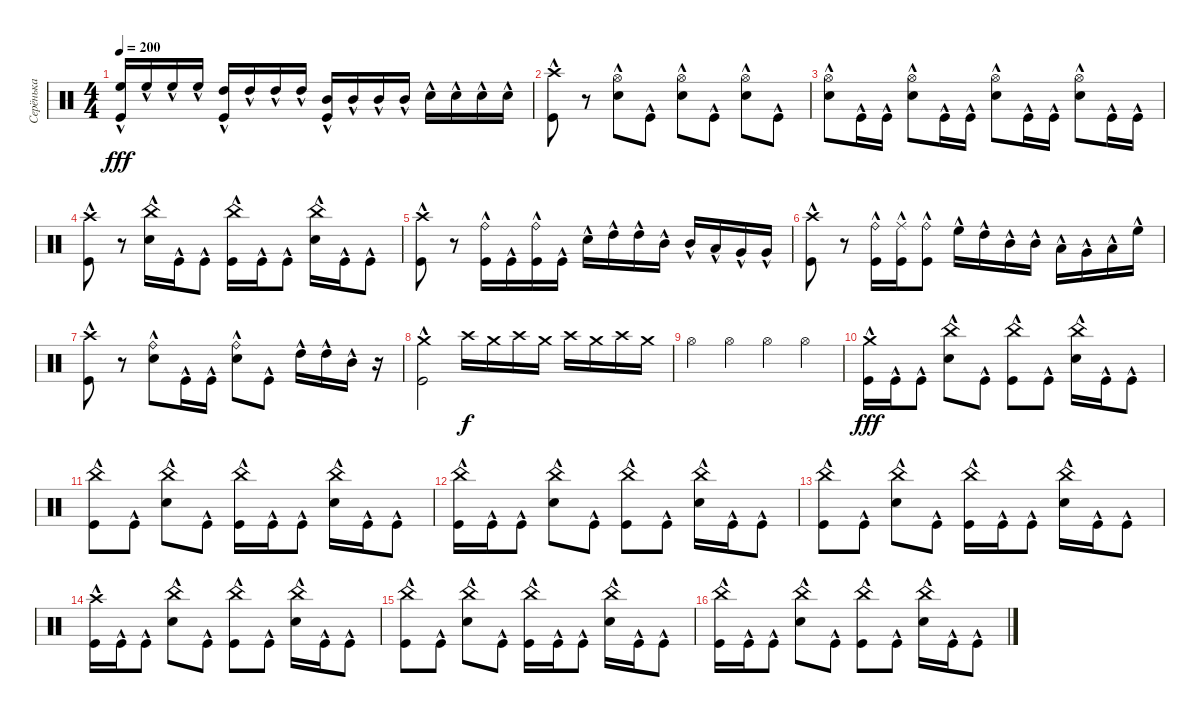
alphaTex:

\track ("Серёнька" "Серёнька") {instrument percussion}
\staff {score}
\articulation defaults
\ts (4 4)
\tempo 200
\clef neutral
\ks c
("Kick (hit)"{hac} "High Floor Tom (hit)"{hac}).16{dy fff} "High Floor Tom (hit)"{hac}.16 "High Floor Tom (hit)"{hac}.16 "High Floor Tom (hit)"{hac}.16 ("Kick (hit)"{hac} "High Tom (hit)"{hac}).16 "High Tom (hit)"{hac}.16 "High Tom (hit)"{hac}.16 "High Tom (hit)"{hac}.16 ("Kick (hit)"{hac} "Mid Tom (hit)"{hac}).16 "Mid Tom (hit)"{hac}.16 "Mid Tom (hit)"{hac}.16 "Mid Tom (hit)"{hac}.16 "Snare (hit) 2"{hac}.16 "Snare (hit) 2"{hac}.16 "Snare (hit) 2"{hac}.16 "Snare (hit) 2"{hac}.16 |
("Crash high (hit)" "Kick (hit)"{hac}).8 r.8 ("Hi-Hat (open)" "Snare (hit) 2"{hac}).8 "Kick (hit)"{hac}.8 ("Hi-Hat (open)" "Snare (hit) 2"{hac}).8 "Kick (hit)"{hac}.8 ("Hi-Hat (open)" "Snare (hit) 2"{hac}).8 "Kick (hit)"{hac}.8 |
("Hi-Hat (open)" "Snare (hit) 2"{hac}).8 "Kick (hit)"{hac}.16 "Kick (hit)"{hac}.16 ("Hi-Hat (open)" "Snare (hit) 2"{hac}).8 "Kick (hit)"{hac}.16 "Kick (hit)"{hac}.16 ("Hi-Hat (open)" "Snare (hit) 2"{hac}).8 "Kick (hit)"{hac}.16 "Kick (hit)"{hac}.16 ("Hi-Hat (open)" "Snare (hit) 2"{hac}).8 "Kick (hit)"{hac}.16 "Kick (hit)"{hac}.16 |
("Crash high (hit)" "Kick (hit)"{hac}).8 r.8 ("China (hit)" "Snare (hit) 2"{hac}).16 "Kick (hit)"{hac}.16 "Kick (hit)"{hac}.8 ("China (hit)" "Kick (hit)"{hac}).16 "Kick (hit)"{hac}.16 "Kick (hit)"{hac}.8 ("China (hit)" "Snare (hit) 2"{hac}).16 "Kick (hit)"{hac}.16 "Kick (hit)"{hac}.8 |
("Crash high (hit)"{hac} "Kick (hit)"{hac}).8 r.8 ("Ride (bell)" "Kick (hit)"{hac}).16 "Kick (hit)"{hac}.16 ("Ride (bell)" "Kick (hit)"{hac}).16 "Kick (hit)"{hac}.16 "Snare (hit) 2"{hac}.16 "High Tom (hit)"{hac}.16 "High Tom (hit)"{hac}.16 "Mid Tom (hit)"{hac}.16 "Mid Tom (hit)"{hac}.16 "Low Tom (hit)"{hac}.16 "Very Low Tom (hit)"{hac}.16 "Very Low Tom (hit)"{hac}.16 |
("Crash high (hit)"{hac} "Kick (hit)"{hac}).8 r.8 ("Ride (bell)"{hac} "Kick (hit)"{hac}).16 ("Ride (middle)"{hac} "Kick (hit)"{hac}).16 ("Ride (bell)"{hac} "Kick (hit)"{hac}).8 "High Floor Tom (hit)"{hac}.16 "High Tom (hit)"{hac}.16 "Mid Tom (hit)"{hac}.16 "Mid Tom (hit)"{hac}.16 "Low Tom (hit)"{hac}.16 "Very Low Tom (hit)"{hac}.16 "Low Tom (hit)"{hac}.16 "High Floor Tom (hit)"{hac}.16 |
("Crash high (hit)"{hac} "Kick (hit)"{hac}).8 r.8 ("Ride (bell)" "Snare (hit) 2"{hac}).8 "Kick (hit)"{hac}.16 "Kick (hit)"{hac}.16 ("Ride (bell)" "Snare (hit) 2"{hac}).8 "Kick (hit)"{hac}.8 "High Tom (hit)"{hac}.16 "High Tom (hit)"{hac}.16 "Mid Tom (hit)"{hac}.16 r.16 |
("Crash medium (hit)"{hac} "Kick (hit)"{hac}).2 "Crash high (hit)".16{dy f volume 7} "Crash medium (hit)".16 "Crash high (hit)".16 "Crash medium (hit)".16 "Crash high (hit)".16 "Crash medium (hit)".16 "Crash high (hit)".16 "Crash medium (hit)".16 |
"Hi-Hat (open)".4{volume 16} "Hi-Hat (open)".4 "Hi-Hat (open)".4 "Hi-Hat (open)".4 |
("Crash medium (hit)"{hac} "Kick (hit)"{hac}).16{dy fff} "Kick (hit)"{hac}.16 "Kick (hit)"{hac}.8 ("China (hit)" "Snare (hit) 2"{hac}).8 "Kick (hit)"{hac}.8 ("China (hit)" "Kick (hit)"{hac}).8 "Kick (hit)"{hac}.8 ("China (hit)" "Snare (hit) 2"{hac}).16 "Kick (hit)"{hac}.16 "Kick (hit)"{hac}.8 |
("China (hit)" "Kick (hit)"{hac}).8 "Kick (hit)"{hac}.8 ("China (hit)" "Snare (hit) 2"{hac}).8 "Kick (hit)"{hac}.8 ("China (hit)" "Kick (hit)"{hac}).16 "Kick (hit)"{hac}.16 "Kick (hit)"{hac}.8 ("China (hit)" "Snare (hit) 2"{hac}).16 "Kick (hit)"{hac}.16 "Kick (hit)"{hac}.8 |
("China (hit)" "Kick (hit)"{hac}).16 "Kick (hit)"{hac}.16 "Kick (hit)"{hac}.8 ("China (hit)" "Snare (hit) 2"{hac}).8 "Kick (hit)"{hac}.8 ("China (hit)" "Kick (hit)"{hac}).8 "Kick (hit)"{hac}.8 ("China (hit)" "Snare (hit) 2"{hac}).16 "Kick (hit)"{hac}.16 "Kick (hit)"{hac}.8 |
("China (hit)" "Kick (hit)"{hac}).8 "Kick (hit)"{hac}.8 ("China (hit)" "Snare (hit) 2"{hac}).8 "Kick (hit)"{hac}.8 ("China (hit)" "Kick (hit)"{hac}).16 "Kick (hit)"{hac}.16 "Kick (hit)"{hac}.8 ("China (hit)" "Snare (hit) 2"{hac}).16 "Kick (hit)"{hac}.16 "Kick (hit)"{hac}.8 |
("Crash high (hit)"{hac} "Kick (hit)"{hac}).16 "Kick (hit)"{hac}.16 "Kick (hit)"{hac}.8 ("China (hit)" "Snare (hit) 2"{hac}).8 "Kick (hit)"{hac}.8 ("China (hit)" "Kick (hit)"{hac}).8 "Kick (hit)"{hac}.8 ("China (hit)" "Snare (hit) 2"{hac}).16 "Kick (hit)"{hac}.16 "Kick (hit)"{hac}.8 |
("China (hit)" "Kick (hit)"{hac}).8 "Kick (hit)"{hac}.8 ("China (hit)" "Snare (hit) 2"{hac}).8 "Kick (hit)"{hac}.8 ("China (hit)" "Kick (hit)"{hac}).16 "Kick (hit)"{hac}.16 "Kick (hit)"{hac}.8 ("China (hit)" "Snare (hit) 2"{hac}).16 "Kick (hit)"{hac}.16 "Kick (hit)"{hac}.8 |
("China (hit)" "Kick (hit)"{hac}).16 "Kick (hit)"{hac}.16 "Kick (hit)"{hac}.8 ("China (hit)" "Snare (hit) 2"{hac}).8 "Kick (hit)"{hac}.8 ("China (hit)" "Kick (hit)"{hac}).8 "Kick (hit)"{hac}.8 ("China (hit)" "Snare (hit) 2"{hac}).16 "Kick (hit)"{hac}.16 "Kick (hit)"{hac}.8
